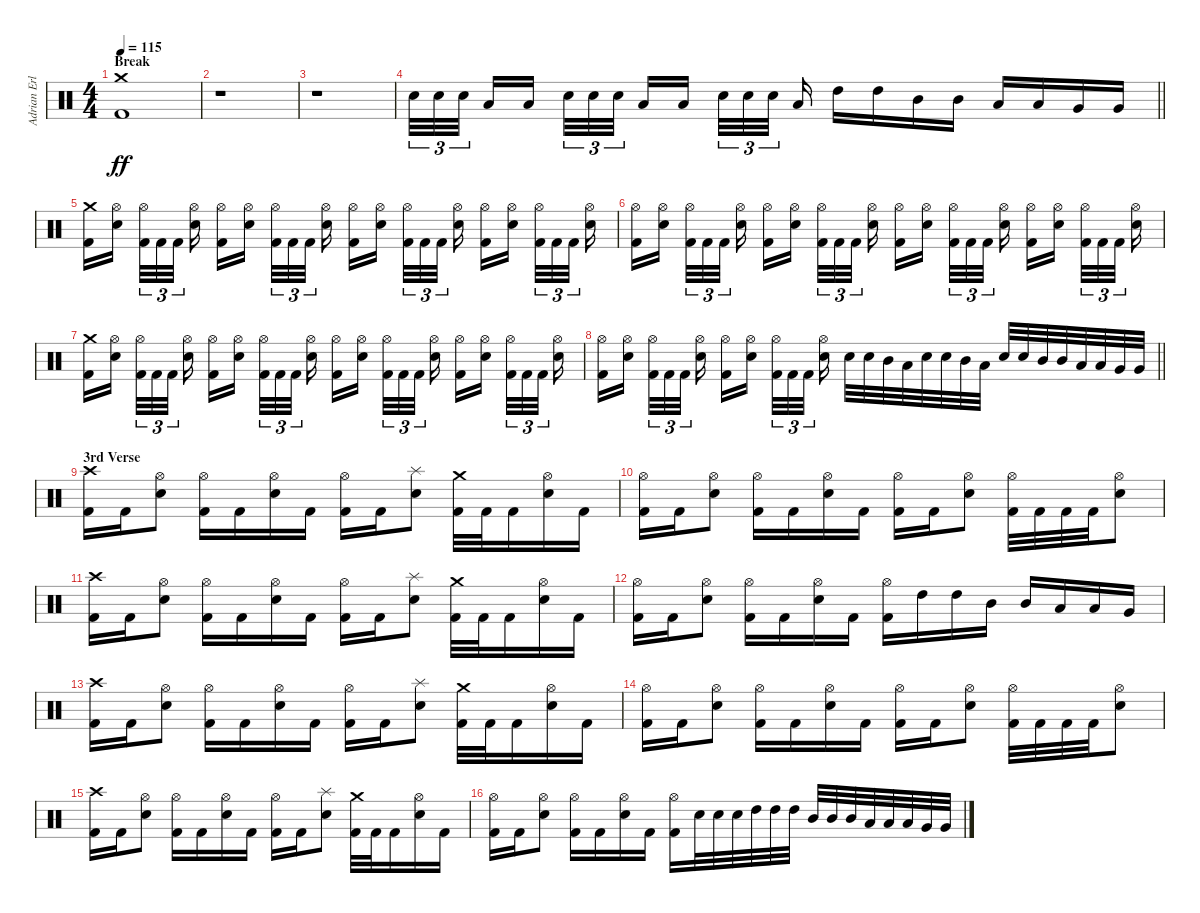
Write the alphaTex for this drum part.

\track ("Adrian Erlandsson" "Adrian Erl") {instrument percussion}
\staff {score}
\articulation defaults
\ts (4 4)
\section ("" "Break")
\tempo 115
\clef neutral
\ks c
("Kick (hit) 2" "Crash medium (hit)").1{dy ff} |
r.1 |
r.1 |
\barLineRight lightlight "Electric Snare (hit)".32{tu (3 2)} "Electric Snare (hit)".32{tu (3 2)} "Electric Snare (hit)".32{tu (3 2) beam splitsecondary} "Low Tom (hit)".16 "Low Tom (hit)".16{beam splitsecondary} "Electric Snare (hit)".32{tu (3 2)} "Electric Snare (hit)".32{tu (3 2)} "Electric Snare (hit)".32{tu (3 2)} "Low Tom (hit)".16 "Low Tom (hit)".16{beam splitsecondary} "Electric Snare (hit)".32{tu (3 2)} "Electric Snare (hit)".32{tu (3 2)} "Electric Snare (hit)".32{tu (3 2) beam splitsecondary} "Low Tom (hit)".16 "High Tom (hit)".16 "High Tom (hit)".16 "Mid Tom (hit)".16 "Mid Tom (hit)".16 "Low Tom (hit)".16 "Low Tom (hit)".16 "Very Low Tom (hit)".16 "Very Low Tom (hit)".16
|
("Kick (hit) 2" "Crash medium (hit)").16 ("Electric Snare (hit)" "Hi-Hat (open)").16{beam splitsecondary} ("Kick (hit) 2" "Hi-Hat (open)").32{tu (3 2)} "Kick (hit) 2".32{tu (3 2)} "Kick (hit) 2".32{tu (3 2) beam splitsecondary} ("Electric Snare (hit)" "Hi-Hat (open)").16 ("Kick (hit) 2" "Hi-Hat (open)").16 ("Electric Snare (hit)" "Hi-Hat (open)").16{beam splitsecondary} ("Kick (hit) 2" "Hi-Hat (open)").32{tu (3 2)} "Kick (hit) 2".32{tu (3 2)} "Kick (hit) 2".32{tu (3 2) beam splitsecondary} ("Electric Snare (hit)" "Hi-Hat (open)").16 ("Kick (hit) 2" "Hi-Hat (open)").16 ("Electric Snare (hit)" "Hi-Hat (open)").16{beam splitsecondary} ("Kick (hit) 2" "Hi-Hat (open)").32{tu (3 2)} "Kick (hit) 2".32{tu (3 2)} "Kick (hit) 2".32{tu (3 2) beam splitsecondary} ("Electric Snare (hit)" "Hi-Hat (open)").16 ("Kick (hit) 2" "Hi-Hat (open)").16 ("Electric Snare (hit)" "Hi-Hat (open)").16{beam splitsecondary} ("Kick (hit) 2" "Hi-Hat (open)").32{tu (3 2)} "Kick (hit) 2".32{tu (3 2)} "Kick (hit) 2".32{tu (3 2) beam splitsecondary} ("Electric Snare (hit)" "Hi-Hat (open)").16 |
("Kick (hit) 2" "Hi-Hat (open)").16 ("Electric Snare (hit)" "Hi-Hat (open)").16{beam splitsecondary} ("Kick (hit) 2" "Hi-Hat (open)").32{tu (3 2)} "Kick (hit) 2".32{tu (3 2)} "Kick (hit) 2".32{tu (3 2) beam splitsecondary} ("Electric Snare (hit)" "Hi-Hat (open)").16 ("Kick (hit) 2" "Hi-Hat (open)").16 ("Electric Snare (hit)" "Hi-Hat (open)").16{beam splitsecondary} ("Kick (hit) 2" "Hi-Hat (open)").32{tu (3 2)} "Kick (hit) 2".32{tu (3 2)} "Kick (hit) 2".32{tu (3 2) beam splitsecondary} ("Electric Snare (hit)" "Hi-Hat (open)").16 ("Kick (hit) 2" "Hi-Hat (open)").16 ("Electric Snare (hit)" "Hi-Hat (open)").16{beam splitsecondary} ("Kick (hit) 2" "Hi-Hat (open)").32{tu (3 2)} "Kick (hit) 2".32{tu (3 2)} "Kick (hit) 2".32{tu (3 2) beam splitsecondary} ("Electric Snare (hit)" "Hi-Hat (open)").16 ("Kick (hit) 2" "Hi-Hat (open)").16 ("Electric Snare (hit)" "Hi-Hat (open)").16{beam splitsecondary} ("Kick (hit) 2" "Hi-Hat (open)").32{tu (3 2)} "Kick (hit) 2".32{tu (3 2)} "Kick (hit) 2".32{tu (3 2) beam splitsecondary} ("Electric Snare (hit)" "Hi-Hat (open)").16 |
("Kick (hit) 2" "Crash medium (hit)").16 ("Electric Snare (hit)" "Hi-Hat (open)").16{beam splitsecondary} ("Kick (hit) 2" "Hi-Hat (open)").32{tu (3 2)} "Kick (hit) 2".32{tu (3 2)} "Kick (hit) 2".32{tu (3 2) beam splitsecondary} ("Electric Snare (hit)" "Hi-Hat (open)").16 ("Kick (hit) 2" "Hi-Hat (open)").16 ("Electric Snare (hit)" "Hi-Hat (open)").16{beam splitsecondary} ("Kick (hit) 2" "Hi-Hat (open)").32{tu (3 2)} "Kick (hit) 2".32{tu (3 2)} "Kick (hit) 2".32{tu (3 2) beam splitsecondary} ("Electric Snare (hit)" "Hi-Hat (open)").16 ("Kick (hit) 2" "Hi-Hat (open)").16 ("Electric Snare (hit)" "Hi-Hat (open)").16{beam splitsecondary} ("Kick (hit) 2" "Hi-Hat (open)").32{tu (3 2)} "Kick (hit) 2".32{tu (3 2)} "Kick (hit) 2".32{tu (3 2) beam splitsecondary} ("Electric Snare (hit)" "Hi-Hat (open)").16 ("Kick (hit) 2" "Hi-Hat (open)").16 ("Electric Snare (hit)" "Hi-Hat (open)").16{beam splitsecondary} ("Kick (hit) 2" "Hi-Hat (open)").32{tu (3 2)} "Kick (hit) 2".32{tu (3 2)} "Kick (hit) 2".32{tu (3 2) beam splitsecondary} ("Electric Snare (hit)" "Hi-Hat (open)").16 |
\barLineRight lightlight
("Kick (hit) 2" "Hi-Hat (open)").16 ("Electric Snare (hit)" "Hi-Hat (open)").16{beam splitsecondary} ("Kick (hit) 2" "Hi-Hat (open)").32{tu (3 2)} "Kick (hit) 2".32{tu (3 2)} "Kick (hit) 2".32{tu (3 2) beam splitsecondary} ("Electric Snare (hit)" "Hi-Hat (open)").16 ("Kick (hit) 2" "Hi-Hat (open)").16 ("Electric Snare (hit)" "Hi-Hat (open)").16{beam splitsecondary} ("Kick (hit) 2" "Hi-Hat (open)").32{tu (3 2)} "Kick (hit) 2".32{tu (3 2)} "Kick (hit) 2".32{tu (3 2) beam splitsecondary} ("Electric Snare (hit)" "Hi-Hat (open)").16 "Electric Snare (hit)".32 "Electric Snare (hit)".32 "Mid Tom (hit)".32 "Low Tom (hit)".32 "Electric Snare (hit)".32 "Electric Snare (hit)".32 "Mid Tom (hit)".32 "Low Tom (hit)".32 "Electric Snare (hit)".32 "Electric Snare (hit)".32 "Mid Tom (hit)".32 "Mid Tom (hit)".32 "Low Tom (hit)".32 "Low Tom (hit)".32 "Very Low Tom (hit)".32 "Very Low Tom (hit)".32 |
\section ("" "3rd Verse")
("Kick (hit) 2" "Crash high (hit)").16 "Kick (hit) 2".16 ("Electric Snare (hit)" "Hi-Hat (open)").8 ("Kick (hit) 2" "Hi-Hat (open)").16 "Kick (hit) 2".16 ("Electric Snare (hit)" "Hi-Hat (open)").16 "Kick (hit) 2".16 ("Kick (hit) 2" "Hi-Hat (open)").16 "Kick (hit) 2".16 ("Electric Snare (hit)" "Splash (hit)").8 ("Kick (hit) 2" "Crash medium (hit)").32 "Kick (hit) 2".32 "Kick (hit) 2".16 ("Electric Snare (hit)" "Hi-Hat (open)").16 "Kick (hit) 2".16 |
("Kick (hit) 2" "Hi-Hat (open)").16 "Kick (hit) 2".16 ("Electric Snare (hit)" "Hi-Hat (open)").8 ("Kick (hit) 2" "Hi-Hat (open)").16 "Kick (hit) 2".16 ("Electric Snare (hit)" "Hi-Hat (open)").16 "Kick (hit) 2".16 ("Kick (hit) 2" "Hi-Hat (open)").16 "Kick (hit) 2".16 ("Electric Snare (hit)" "Hi-Hat (open)").8 ("Kick (hit) 2" "Hi-Hat (open)").32 "Kick (hit) 2".32 "Kick (hit) 2".32 "Kick (hit) 2".32 ("Electric Snare (hit)" "Hi-Hat (open)").8 |
("Kick (hit) 2" "Crash high (hit)").16 "Kick (hit) 2".16 ("Electric Snare (hit)" "Hi-Hat (open)").8 ("Kick (hit) 2" "Hi-Hat (open)").16 "Kick (hit) 2".16 ("Electric Snare (hit)" "Hi-Hat (open)").16 "Kick (hit) 2".16 ("Kick (hit) 2" "Hi-Hat (open)").16 "Kick (hit) 2".16 ("Electric Snare (hit)" "Splash (hit)").8 ("Kick (hit) 2" "Crash medium (hit)").32 "Kick (hit) 2".32 "Kick (hit) 2".16 ("Electric Snare (hit)" "Hi-Hat (open)").16 "Kick (hit) 2".16 |
("Kick (hit) 2" "Hi-Hat (open)").16 "Kick (hit) 2".16 ("Electric Snare (hit)" "Hi-Hat (open)").8 ("Kick (hit) 2" "Hi-Hat (open)").16 "Kick (hit) 2".16 ("Electric Snare (hit)" "Hi-Hat (open)").16 "Kick (hit) 2".16 ("Kick (hit) 2" "Hi-Hat (open)").16 "High Tom (hit)".16 "High Tom (hit)".16 "Mid Tom (hit)".16 "Mid Tom (hit)".16 "Low Tom (hit)".16 "Low Tom (hit)".16 "Very Low Tom (hit)".16 |
("Kick (hit) 2" "Crash high (hit)").16 "Kick (hit) 2".16 ("Electric Snare (hit)" "Hi-Hat (open)").8 ("Kick (hit) 2" "Hi-Hat (open)").16 "Kick (hit) 2".16 ("Electric Snare (hit)" "Hi-Hat (open)").16 "Kick (hit) 2".16 ("Kick (hit) 2" "Hi-Hat (open)").16 "Kick (hit) 2".16 ("Electric Snare (hit)" "Splash (hit)").8 ("Kick (hit) 2" "Crash medium (hit)").32 "Kick (hit) 2".32 "Kick (hit) 2".16 ("Electric Snare (hit)" "Hi-Hat (open)").16 "Kick (hit) 2".16 |
("Kick (hit) 2" "Hi-Hat (open)").16 "Kick (hit) 2".16 ("Electric Snare (hit)" "Hi-Hat (open)").8 ("Kick (hit) 2" "Hi-Hat (open)").16 "Kick (hit) 2".16 ("Electric Snare (hit)" "Hi-Hat (open)").16 "Kick (hit) 2".16 ("Kick (hit) 2" "Hi-Hat (open)").16 "Kick (hit) 2".16 ("Electric Snare (hit)" "Hi-Hat (open)").8 ("Kick (hit) 2" "Hi-Hat (open)").32 "Kick (hit) 2".32 "Kick (hit) 2".32 "Kick (hit) 2".32 ("Electric Snare (hit)" "Hi-Hat (open)").8 |
("Kick (hit) 2" "Crash high (hit)").16 "Kick (hit) 2".16 ("Electric Snare (hit)" "Hi-Hat (open)").8 ("Kick (hit) 2" "Hi-Hat (open)").16 "Kick (hit) 2".16 ("Electric Snare (hit)" "Hi-Hat (open)").16 "Kick (hit) 2".16 ("Kick (hit) 2" "Hi-Hat (open)").16 "Kick (hit) 2".16 ("Electric Snare (hit)" "Splash (hit)").8 ("Kick (hit) 2" "Crash medium (hit)").32 "Kick (hit) 2".32 "Kick (hit) 2".16 ("Electric Snare (hit)" "Hi-Hat (open)").16 "Kick (hit) 2".16 |
("Kick (hit) 2" "Hi-Hat (open)").16 "Kick (hit) 2".16 ("Electric Snare (hit)" "Hi-Hat (open)").8 ("Kick (hit) 2" "Hi-Hat (open)").16 "Kick (hit) 2".16 ("Electric Snare (hit)" "Hi-Hat (open)").16 "Kick (hit) 2".16 ("Kick (hit) 2" "Hi-Hat (open)").16 "Electric Snare (hit)".32 "Electric Snare (hit)".32 "Electric Snare (hit)".32 "High Tom (hit)".32 "High Tom (hit)".32 "High Tom (hit)".32 "Mid Tom (hit)".32 "Mid Tom (hit)".32 "Mid Tom (hit)".32 "Low Tom (hit)".32 "Low Tom (hit)".32 "Low Tom (hit)".32 "Very Low Tom (hit)".32 "Very Low Tom (hit)".32
